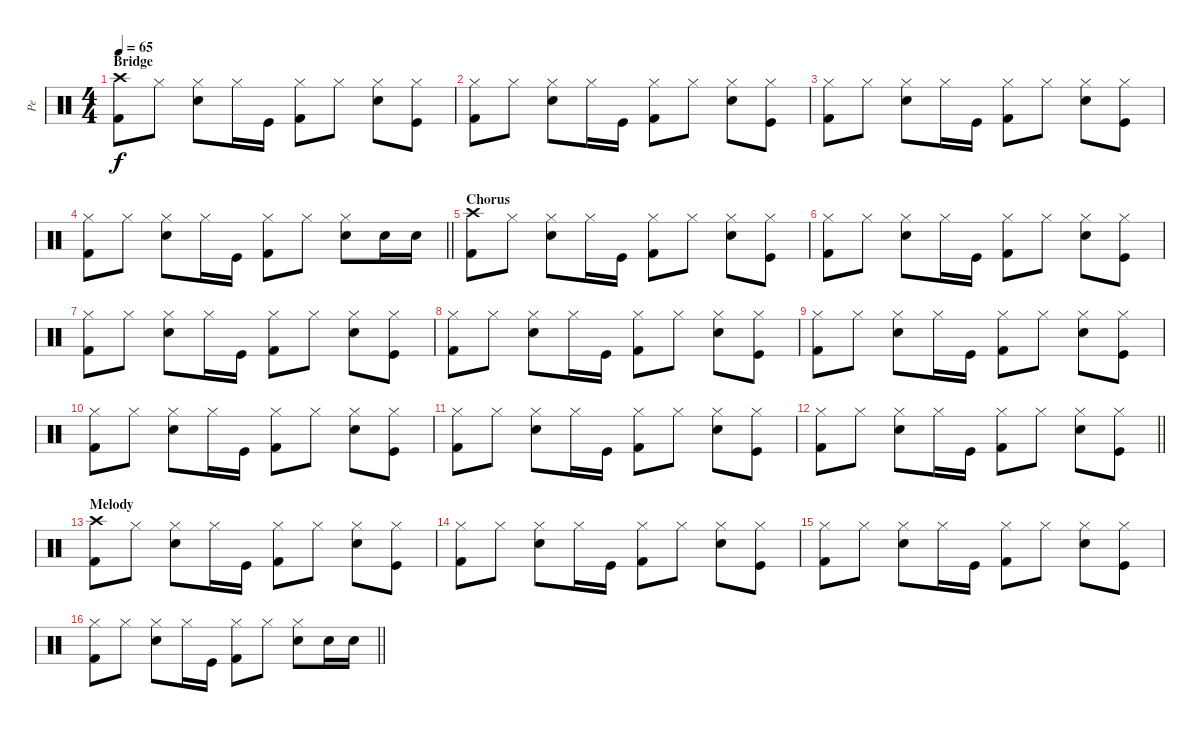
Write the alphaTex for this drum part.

\track ("Pe" "Pe") {instrument percussion}
\staff {score}
\articulation defaults
\ts (4 4)
\section ("" "Bridge")
\tempo 65
\clef neutral
\ks c
("Kick (hit) 2" "Crash high (hit)").8{dy f} "Hi-Hat (closed)".8 ("Electric Snare (hit)" "Hi-Hat (closed)").8 "Hi-Hat (closed)".16 "Kick (hit)".16 ("Kick (hit) 2" "Hi-Hat (closed)").8 "Hi-Hat (closed)".8 ("Electric Snare (hit)" "Hi-Hat (closed)").8 ("Kick (hit)" "Hi-Hat (closed)").8 |
("Kick (hit) 2" "Hi-Hat (closed)").8 "Hi-Hat (closed)".8 ("Electric Snare (hit)" "Hi-Hat (closed)").8 "Hi-Hat (closed)".16 "Kick (hit)".16 ("Kick (hit) 2" "Hi-Hat (closed)").8 "Hi-Hat (closed)".8 ("Electric Snare (hit)" "Hi-Hat (closed)").8 ("Kick (hit)" "Hi-Hat (closed)").8 |
("Kick (hit) 2" "Hi-Hat (closed)").8 "Hi-Hat (closed)".8 ("Electric Snare (hit)" "Hi-Hat (closed)").8 "Hi-Hat (closed)".16 "Kick (hit)".16 ("Kick (hit) 2" "Hi-Hat (closed)").8 "Hi-Hat (closed)".8 ("Electric Snare (hit)" "Hi-Hat (closed)").8 ("Kick (hit)" "Hi-Hat (closed)").8 |
\barLineRight lightlight
("Kick (hit) 2" "Hi-Hat (closed)").8 "Hi-Hat (closed)".8 ("Electric Snare (hit)" "Hi-Hat (closed)").8 "Hi-Hat (closed)".16 "Kick (hit)".16 ("Kick (hit) 2" "Hi-Hat (closed)").8 "Hi-Hat (closed)".8 ("Electric Snare (hit)" "Hi-Hat (closed)").8 "Electric Snare (hit)".16 "Electric Snare (hit)".16 |
\section ("" "Chorus")
("Kick (hit) 2" "Crash high (hit)").8 "Hi-Hat (closed)".8 ("Electric Snare (hit)" "Hi-Hat (closed)").8 "Hi-Hat (closed)".16 "Kick (hit)".16 ("Kick (hit) 2" "Hi-Hat (closed)").8 "Hi-Hat (closed)".8 ("Electric Snare (hit)" "Hi-Hat (closed)").8 ("Kick (hit)" "Hi-Hat (closed)").8 |
("Kick (hit) 2" "Hi-Hat (closed)").8 "Hi-Hat (closed)".8 ("Electric Snare (hit)" "Hi-Hat (closed)").8 "Hi-Hat (closed)".16 "Kick (hit)".16 ("Kick (hit) 2" "Hi-Hat (closed)").8 "Hi-Hat (closed)".8 ("Electric Snare (hit)" "Hi-Hat (closed)").8 ("Kick (hit)" "Hi-Hat (closed)").8 |
("Kick (hit) 2" "Hi-Hat (closed)").8 "Hi-Hat (closed)".8 ("Electric Snare (hit)" "Hi-Hat (closed)").8 "Hi-Hat (closed)".16 "Kick (hit)".16 ("Kick (hit) 2" "Hi-Hat (closed)").8 "Hi-Hat (closed)".8 ("Electric Snare (hit)" "Hi-Hat (closed)").8 ("Kick (hit)" "Hi-Hat (closed)").8 |
("Kick (hit) 2" "Hi-Hat (closed)").8 "Hi-Hat (closed)".8 ("Electric Snare (hit)" "Hi-Hat (closed)").8 "Hi-Hat (closed)".16 "Kick (hit)".16 ("Kick (hit) 2" "Hi-Hat (closed)").8 "Hi-Hat (closed)".8 ("Electric Snare (hit)" "Hi-Hat (closed)").8 ("Kick (hit)" "Hi-Hat (closed)").8 |
("Kick (hit) 2" "Hi-Hat (closed)").8 "Hi-Hat (closed)".8 ("Electric Snare (hit)" "Hi-Hat (closed)").8 "Hi-Hat (closed)".16 "Kick (hit)".16 ("Kick (hit) 2" "Hi-Hat (closed)").8 "Hi-Hat (closed)".8 ("Electric Snare (hit)" "Hi-Hat (closed)").8 ("Kick (hit)" "Hi-Hat (closed)").8 |
("Kick (hit) 2" "Hi-Hat (closed)").8 "Hi-Hat (closed)".8 ("Electric Snare (hit)" "Hi-Hat (closed)").8 "Hi-Hat (closed)".16 "Kick (hit)".16 ("Kick (hit) 2" "Hi-Hat (closed)").8 "Hi-Hat (closed)".8 ("Electric Snare (hit)" "Hi-Hat (closed)").8 ("Kick (hit)" "Hi-Hat (closed)").8 |
("Kick (hit) 2" "Hi-Hat (closed)").8 "Hi-Hat (closed)".8 ("Electric Snare (hit)" "Hi-Hat (closed)").8 "Hi-Hat (closed)".16 "Kick (hit)".16 ("Kick (hit) 2" "Hi-Hat (closed)").8 "Hi-Hat (closed)".8 ("Electric Snare (hit)" "Hi-Hat (closed)").8 ("Kick (hit)" "Hi-Hat (closed)").8 |
\barLineRight lightlight
("Kick (hit) 2" "Hi-Hat (closed)").8 "Hi-Hat (closed)".8 ("Electric Snare (hit)" "Hi-Hat (closed)").8 "Hi-Hat (closed)".16 "Kick (hit)".16 ("Kick (hit) 2" "Hi-Hat (closed)").8 "Hi-Hat (closed)".8 ("Electric Snare (hit)" "Hi-Hat (closed)").8 ("Kick (hit)" "Hi-Hat (closed)").8 |
\section ("" "Melody")
("Kick (hit) 2" "Crash high (hit)").8 "Hi-Hat (closed)".8 ("Electric Snare (hit)" "Hi-Hat (closed)").8 "Hi-Hat (closed)".16 "Kick (hit)".16 ("Kick (hit) 2" "Hi-Hat (closed)").8 "Hi-Hat (closed)".8 ("Electric Snare (hit)" "Hi-Hat (closed)").8 ("Kick (hit)" "Hi-Hat (closed)").8 |
("Kick (hit) 2" "Hi-Hat (closed)").8 "Hi-Hat (closed)".8 ("Electric Snare (hit)" "Hi-Hat (closed)").8 "Hi-Hat (closed)".16 "Kick (hit)".16 ("Kick (hit) 2" "Hi-Hat (closed)").8 "Hi-Hat (closed)".8 ("Electric Snare (hit)" "Hi-Hat (closed)").8 ("Kick (hit)" "Hi-Hat (closed)").8 |
("Kick (hit) 2" "Hi-Hat (closed)").8 "Hi-Hat (closed)".8 ("Electric Snare (hit)" "Hi-Hat (closed)").8 "Hi-Hat (closed)".16 "Kick (hit)".16 ("Kick (hit) 2" "Hi-Hat (closed)").8 "Hi-Hat (closed)".8 ("Electric Snare (hit)" "Hi-Hat (closed)").8 ("Kick (hit)" "Hi-Hat (closed)").8 |
\barLineRight lightlight
("Kick (hit) 2" "Hi-Hat (closed)").8 "Hi-Hat (closed)".8 ("Electric Snare (hit)" "Hi-Hat (closed)").8 "Hi-Hat (closed)".16 "Kick (hit)".16 ("Kick (hit) 2" "Hi-Hat (closed)").8 "Hi-Hat (closed)".8 ("Electric Snare (hit)" "Hi-Hat (closed)").8 "Electric Snare (hit)".16 "Electric Snare (hit)".16
